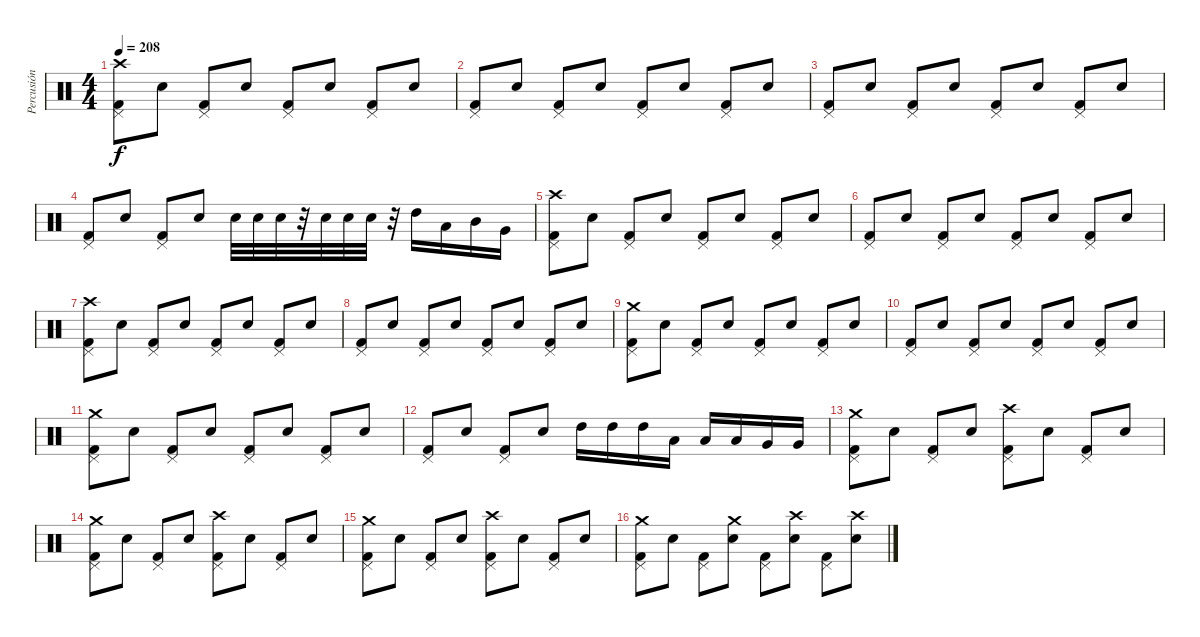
\track ("Percusión" "Percusión") {instrument percussion}
\staff {score}
\articulation defaults
\ts (4 4)
\tempo 208
\clef neutral
\ks c
("Crash high (hit)" "Pedal Hi-Hat (hit)" "Kick (hit) 2").8{dy f} "Electric Snare (hit)".8 ("Pedal Hi-Hat (hit)" "Kick (hit) 2").8 "Electric Snare (hit)".8 ("Pedal Hi-Hat (hit)" "Kick (hit) 2").8 "Electric Snare (hit)".8 ("Pedal Hi-Hat (hit)" "Kick (hit) 2").8 "Electric Snare (hit)".8 |
("Pedal Hi-Hat (hit)" "Kick (hit) 2").8 "Electric Snare (hit)".8 ("Pedal Hi-Hat (hit)" "Kick (hit) 2").8 "Electric Snare (hit)".8 ("Pedal Hi-Hat (hit)" "Kick (hit) 2").8 "Electric Snare (hit)".8 ("Pedal Hi-Hat (hit)" "Kick (hit) 2").8 "Electric Snare (hit)".8 |
("Pedal Hi-Hat (hit)" "Kick (hit) 2").8 "Electric Snare (hit)".8 ("Pedal Hi-Hat (hit)" "Kick (hit) 2").8 "Electric Snare (hit)".8 ("Pedal Hi-Hat (hit)" "Kick (hit) 2").8 "Electric Snare (hit)".8 ("Pedal Hi-Hat (hit)" "Kick (hit) 2").8 "Electric Snare (hit)".8 |
("Pedal Hi-Hat (hit)" "Kick (hit) 2").8 "Electric Snare (hit)".8 ("Pedal Hi-Hat (hit)" "Kick (hit) 2").8 "Electric Snare (hit)".8 "Electric Snare (hit)".32 "Electric Snare (hit)".32 "Electric Snare (hit)".32 r.32 "Electric Snare (hit)".32 "Electric Snare (hit)".32 "Electric Snare (hit)".32 r.32 "High Tom (hit)".16 "Low Tom (hit)".16 "Mid Tom (hit)".16 "Very Low Tom (hit)".16 |
("Crash high (hit)" "Pedal Hi-Hat (hit)" "Kick (hit) 2").8 "Electric Snare (hit)".8 ("Pedal Hi-Hat (hit)" "Kick (hit) 2").8 "Electric Snare (hit)".8 ("Pedal Hi-Hat (hit)" "Kick (hit) 2").8 "Electric Snare (hit)".8 ("Pedal Hi-Hat (hit)" "Kick (hit) 2").8 "Electric Snare (hit)".8 |
("Pedal Hi-Hat (hit)" "Kick (hit) 2").8 "Electric Snare (hit)".8 ("Pedal Hi-Hat (hit)" "Kick (hit) 2").8 "Electric Snare (hit)".8 ("Pedal Hi-Hat (hit)" "Kick (hit) 2").8 "Electric Snare (hit)".8 ("Pedal Hi-Hat (hit)" "Kick (hit) 2").8 "Electric Snare (hit)".8 |
("Crash high (hit)" "Pedal Hi-Hat (hit)" "Kick (hit) 2").8 "Electric Snare (hit)".8 ("Pedal Hi-Hat (hit)" "Kick (hit) 2").8 "Electric Snare (hit)".8 ("Pedal Hi-Hat (hit)" "Kick (hit) 2").8 "Electric Snare (hit)".8 ("Pedal Hi-Hat (hit)" "Kick (hit) 2").8 "Electric Snare (hit)".8 |
("Pedal Hi-Hat (hit)" "Kick (hit) 2").8 "Electric Snare (hit)".8 ("Pedal Hi-Hat (hit)" "Kick (hit) 2").8 "Electric Snare (hit)".8 ("Pedal Hi-Hat (hit)" "Kick (hit) 2").8 "Electric Snare (hit)".8 ("Pedal Hi-Hat (hit)" "Kick (hit) 2").8 "Electric Snare (hit)".8 |
("Crash medium (hit)" "Pedal Hi-Hat (hit)" "Kick (hit) 2").8 "Electric Snare (hit)".8 ("Pedal Hi-Hat (hit)" "Kick (hit) 2").8 "Electric Snare (hit)".8 ("Pedal Hi-Hat (hit)" "Kick (hit) 2").8 "Electric Snare (hit)".8 ("Pedal Hi-Hat (hit)" "Kick (hit) 2").8 "Electric Snare (hit)".8 |
("Pedal Hi-Hat (hit)" "Kick (hit) 2").8 "Electric Snare (hit)".8 ("Pedal Hi-Hat (hit)" "Kick (hit) 2").8 "Electric Snare (hit)".8 ("Pedal Hi-Hat (hit)" "Kick (hit) 2").8 "Electric Snare (hit)".8 ("Pedal Hi-Hat (hit)" "Kick (hit) 2").8 "Electric Snare (hit)".8 |
("Crash medium (hit)" "Pedal Hi-Hat (hit)" "Kick (hit) 2").8 "Electric Snare (hit)".8 ("Pedal Hi-Hat (hit)" "Kick (hit) 2").8 "Electric Snare (hit)".8 ("Pedal Hi-Hat (hit)" "Kick (hit) 2").8 "Electric Snare (hit)".8 ("Pedal Hi-Hat (hit)" "Kick (hit) 2").8 "Electric Snare (hit)".8 |
("Pedal Hi-Hat (hit)" "Kick (hit) 2").8 "Electric Snare (hit)".8 ("Pedal Hi-Hat (hit)" "Kick (hit) 2").8 "Electric Snare (hit)".8 "High Tom (hit)".16 "High Tom (hit)".16 "High Tom (hit)".16 "Low Tom (hit)".16 "Low Tom (hit)".16 "Low Tom (hit)".16 "Very Low Tom (hit)".16 "Very Low Tom (hit)".16 |
("Crash medium (hit)" "Pedal Hi-Hat (hit)" "Kick (hit) 2").8 "Electric Snare (hit)".8 ("Pedal Hi-Hat (hit)" "Kick (hit) 2").8 "Electric Snare (hit)".8 ("Crash high (hit)" "Pedal Hi-Hat (hit)" "Kick (hit) 2").8 "Electric Snare (hit)".8 ("Pedal Hi-Hat (hit)" "Kick (hit) 2").8 "Electric Snare (hit)".8 |
("Crash medium (hit)" "Pedal Hi-Hat (hit)" "Kick (hit) 2").8 "Electric Snare (hit)".8 ("Pedal Hi-Hat (hit)" "Kick (hit) 2").8 "Electric Snare (hit)".8 ("Crash high (hit)" "Pedal Hi-Hat (hit)" "Kick (hit) 2").8 "Electric Snare (hit)".8 ("Pedal Hi-Hat (hit)" "Kick (hit) 2").8 "Electric Snare (hit)".8 |
("Crash medium (hit)" "Pedal Hi-Hat (hit)" "Kick (hit) 2").8 "Electric Snare (hit)".8 ("Pedal Hi-Hat (hit)" "Kick (hit) 2").8 "Electric Snare (hit)".8 ("Crash high (hit)" "Pedal Hi-Hat (hit)" "Kick (hit) 2").8 "Electric Snare (hit)".8 ("Pedal Hi-Hat (hit)" "Kick (hit) 2").8 "Electric Snare (hit)".8 |
("Crash medium (hit)" "Pedal Hi-Hat (hit)" "Kick (hit) 2").8 "Electric Snare (hit)".8 ("Pedal Hi-Hat (hit)" "Kick (hit) 2").8 ("Crash medium (hit)" "Electric Snare (hit)").8 ("Pedal Hi-Hat (hit)" "Kick (hit) 2").8 ("Crash high (hit)" "Electric Snare (hit)").8 ("Pedal Hi-Hat (hit)" "Kick (hit) 2").8 ("Crash high (hit)" "Electric Snare (hit)").8
